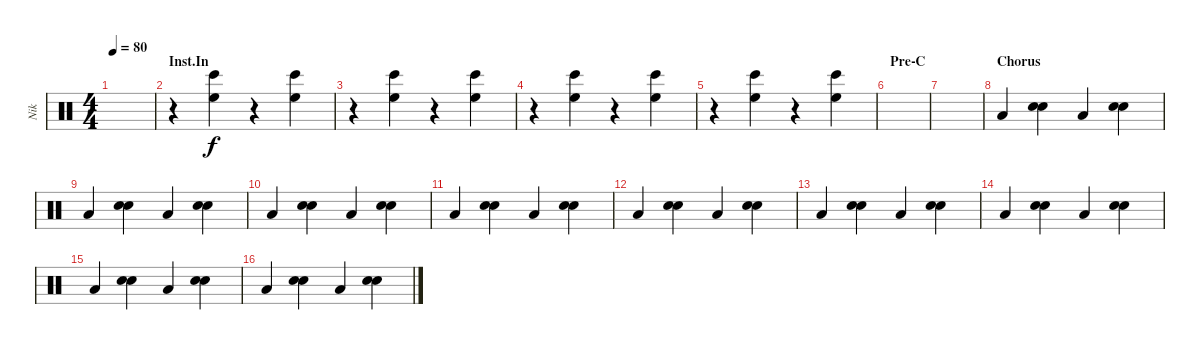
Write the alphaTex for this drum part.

\track ("Nik" "Nik") {instrument percussion}
\staff {score}
\articulation defaults
\ts (4 4)
\tempo 80
\clef neutral
\ks c
|
\section ("" "Inst.In")
r.4 ("High Floor Tom (hit)" "Bongo High (hit)").4 r.4 ("High Floor Tom (hit)" "Bongo High (hit)").4 |
r.4 ("High Floor Tom (hit)" "Bongo High (hit)").4 r.4 ("High Floor Tom (hit)" "Bongo High (hit)").4 |
r.4 ("High Floor Tom (hit)" "Bongo High (hit)").4 r.4 ("High Floor Tom (hit)" "Bongo High (hit)").4 |
r.4 ("High Floor Tom (hit)" "Bongo High (hit)").4 r.4 ("High Floor Tom (hit)" "Bongo High (hit)").4 |
\section ("" "Pre-C")
|
|
\section ("" "Chorus")
"Low Floor Tom (hit)".4 ("Hand Clap (hit)" "Hand Clap (hit)").4 "Low Floor Tom (hit)".4 ("Hand Clap (hit)" "Hand Clap (hit)").4 |
"Low Floor Tom (hit)".4 ("Hand Clap (hit)" "Hand Clap (hit)").4 "Low Floor Tom (hit)".4 ("Hand Clap (hit)" "Hand Clap (hit)").4 |
"Low Floor Tom (hit)".4 ("Hand Clap (hit)" "Hand Clap (hit)").4 "Low Floor Tom (hit)".4 ("Hand Clap (hit)" "Hand Clap (hit)").4 |
"Low Floor Tom (hit)".4 ("Hand Clap (hit)" "Hand Clap (hit)").4 "Low Floor Tom (hit)".4 ("Hand Clap (hit)" "Hand Clap (hit)").4 |
"Low Floor Tom (hit)".4 ("Hand Clap (hit)" "Hand Clap (hit)").4 "Low Floor Tom (hit)".4 ("Hand Clap (hit)" "Hand Clap (hit)").4 |
"Low Floor Tom (hit)".4 ("Hand Clap (hit)" "Hand Clap (hit)").4 "Low Floor Tom (hit)".4 ("Hand Clap (hit)" "Hand Clap (hit)").4 |
"Low Floor Tom (hit)".4 ("Hand Clap (hit)" "Hand Clap (hit)").4 "Low Floor Tom (hit)".4 ("Hand Clap (hit)" "Hand Clap (hit)").4 |
"Low Floor Tom (hit)".4 ("Hand Clap (hit)" "Hand Clap (hit)").4 "Low Floor Tom (hit)".4 ("Hand Clap (hit)" "Hand Clap (hit)").4 |
"Low Floor Tom (hit)".4 ("Hand Clap (hit)" "Hand Clap (hit)").4 "Low Floor Tom (hit)".4 ("Hand Clap (hit)" "Hand Clap (hit)").4
